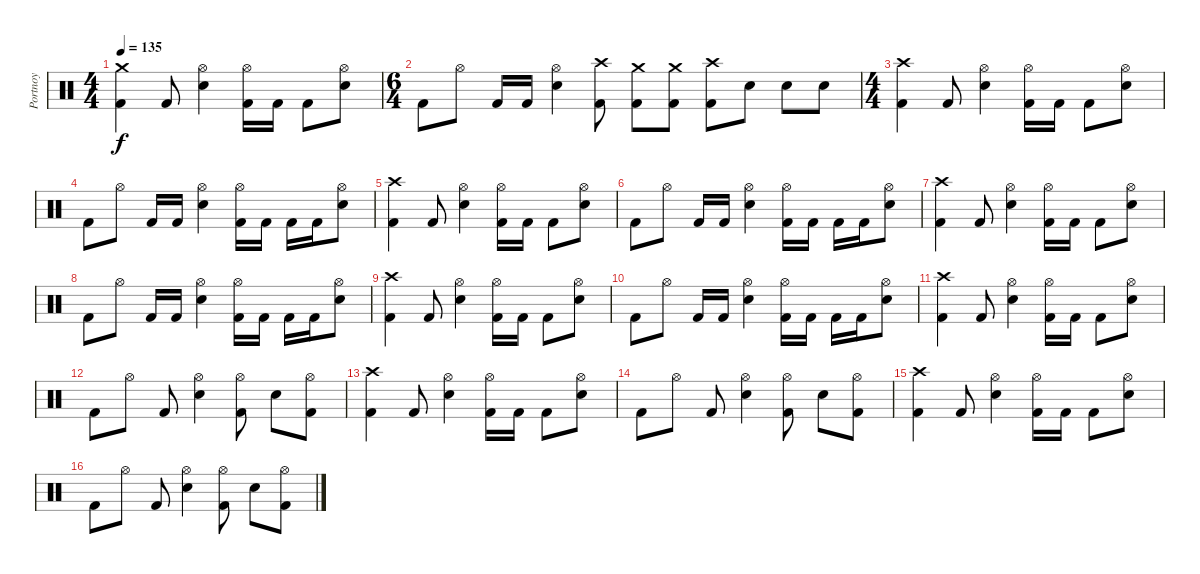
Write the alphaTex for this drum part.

\track ("Portnoy" "Portnoy") {instrument percussion}
\staff {score}
\articulation defaults
\ts (4 4)
\tempo 135
\clef neutral
\ks c
("Kick (hit) 2" "Crash medium (hit)").4{dy f} "Kick (hit) 2".8 ("Hi-Hat (open)" "Snare (hit) 2").4 ("Kick (hit) 2" "Hi-Hat (open)").16 "Kick (hit) 2".16 "Kick (hit) 2".8 ("Hi-Hat (open)" "Snare (hit) 2").8 |
\ts (6 4)
"Kick (hit) 2".8 "Hi-Hat (open)".8 "Kick (hit) 2".16 "Kick (hit) 2".16 ("Hi-Hat (open)" "Snare (hit) 2").4 ("Kick (hit) 2" "Crash high (hit)").8 ("Kick (hit) 2" "Crash medium (hit)").8 ("Kick (hit) 2" "Crash medium (hit)").8 ("Kick (hit) 2" "Crash high (hit)").8 "Snare (hit) 2".8 "Snare (hit) 2".8 "Snare (hit) 2".8 |
\ts (4 4)
("Kick (hit) 2" "Crash high (hit)").4 "Kick (hit) 2".8 ("Hi-Hat (open)" "Snare (hit) 2").4 ("Kick (hit) 2" "Hi-Hat (open)").16 "Kick (hit) 2".16 "Kick (hit) 2".8 ("Hi-Hat (open)" "Snare (hit) 2").8 |
"Kick (hit) 2".8 "Hi-Hat (open)".8 "Kick (hit) 2".16 "Kick (hit) 2".16 ("Hi-Hat (open)" "Snare (hit) 2").4 ("Kick (hit) 2" "Hi-Hat (open)").16 "Kick (hit) 2".16 "Kick (hit) 2".16 "Kick (hit) 2".16 ("Hi-Hat (open)" "Snare (hit) 2").8 |
("Kick (hit) 2" "Crash high (hit)").4 "Kick (hit) 2".8 ("Hi-Hat (open)" "Snare (hit) 2").4 ("Kick (hit) 2" "Hi-Hat (open)").16 "Kick (hit) 2".16 "Kick (hit) 2".8 ("Hi-Hat (open)" "Snare (hit) 2").8 |
"Kick (hit) 2".8 "Hi-Hat (open)".8 "Kick (hit) 2".16 "Kick (hit) 2".16 ("Hi-Hat (open)" "Snare (hit) 2").4 ("Kick (hit) 2" "Hi-Hat (open)").16 "Kick (hit) 2".16 "Kick (hit) 2".16 "Kick (hit) 2".16 ("Hi-Hat (open)" "Snare (hit) 2").8 |
("Kick (hit) 2" "Crash high (hit)").4 "Kick (hit) 2".8 ("Hi-Hat (open)" "Snare (hit) 2").4 ("Kick (hit) 2" "Hi-Hat (open)").16 "Kick (hit) 2".16 "Kick (hit) 2".8 ("Hi-Hat (open)" "Snare (hit) 2").8 |
"Kick (hit) 2".8 "Hi-Hat (open)".8 "Kick (hit) 2".16 "Kick (hit) 2".16 ("Hi-Hat (open)" "Snare (hit) 2").4 ("Kick (hit) 2" "Hi-Hat (open)").16 "Kick (hit) 2".16 "Kick (hit) 2".16 "Kick (hit) 2".16 ("Hi-Hat (open)" "Snare (hit) 2").8 |
("Kick (hit) 2" "Crash high (hit)").4 "Kick (hit) 2".8 ("Hi-Hat (open)" "Snare (hit) 2").4 ("Kick (hit) 2" "Hi-Hat (open)").16 "Kick (hit) 2".16 "Kick (hit) 2".8 ("Hi-Hat (open)" "Snare (hit) 2").8 |
"Kick (hit) 2".8 "Hi-Hat (open)".8 "Kick (hit) 2".16 "Kick (hit) 2".16 ("Hi-Hat (open)" "Snare (hit) 2").4 ("Kick (hit) 2" "Hi-Hat (open)").16 "Kick (hit) 2".16 "Kick (hit) 2".16 "Kick (hit) 2".16 ("Hi-Hat (open)" "Snare (hit) 2").8 |
("Kick (hit) 2" "Crash high (hit)").4 "Kick (hit) 2".8 ("Hi-Hat (open)" "Snare (hit) 2").4 ("Kick (hit) 2" "Hi-Hat (open)").16 "Kick (hit) 2".16 "Kick (hit) 2".8 ("Hi-Hat (open)" "Snare (hit) 2").8 |
"Kick (hit) 2".8 "Hi-Hat (open)".8 "Kick (hit) 2".8 ("Hi-Hat (open)" "Snare (hit) 2").4 ("Kick (hit) 2" "Hi-Hat (open)").8 "Snare (hit) 2".8 ("Kick (hit) 2" "Hi-Hat (open)").8 |
("Kick (hit) 2" "Crash high (hit)").4 "Kick (hit) 2".8 ("Hi-Hat (open)" "Snare (hit) 2").4 ("Kick (hit) 2" "Hi-Hat (open)").16 "Kick (hit) 2".16 "Kick (hit) 2".8 ("Hi-Hat (open)" "Snare (hit) 2").8 |
"Kick (hit) 2".8 "Hi-Hat (open)".8 "Kick (hit) 2".8 ("Hi-Hat (open)" "Snare (hit) 2").4 ("Kick (hit) 2" "Hi-Hat (open)").8 "Snare (hit) 2".8 ("Kick (hit) 2" "Hi-Hat (open)").8 |
("Kick (hit) 2" "Crash high (hit)").4 "Kick (hit) 2".8 ("Hi-Hat (open)" "Snare (hit) 2").4 ("Kick (hit) 2" "Hi-Hat (open)").16 "Kick (hit) 2".16 "Kick (hit) 2".8 ("Hi-Hat (open)" "Snare (hit) 2").8 |
"Kick (hit) 2".8 "Hi-Hat (open)".8 "Kick (hit) 2".8 ("Hi-Hat (open)" "Snare (hit) 2").4 ("Kick (hit) 2" "Hi-Hat (open)").8 "Snare (hit) 2".8 ("Kick (hit) 2" "Hi-Hat (open)").8
